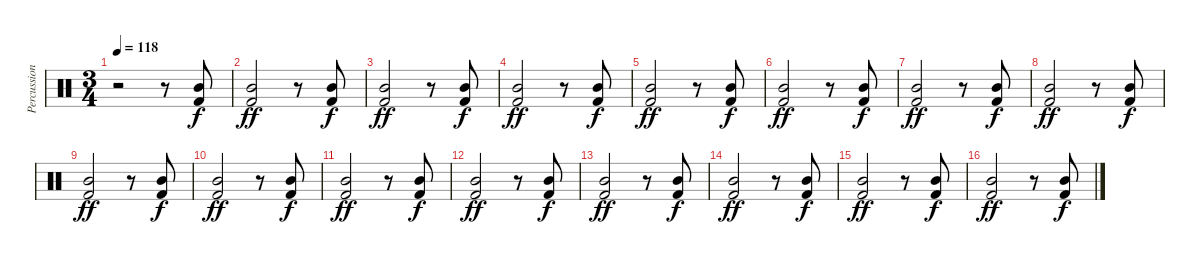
\track ("Percussion" "Percussion") {instrument percussion}
\staff {score}
\articulation defaults
\ts (3 4)
\tempo 118
\clef neutral
\ks c
r.2{dy f volume 4} r.8 ("Mid Tom (hit)" "Kick (hit) 2").8 |
("Mid Tom (hit)" "Kick (hit) 2").2{dy ff} r.8 ("Mid Tom (hit)" "Kick (hit) 2").8{dy f} |
("Mid Tom (hit)" "Kick (hit) 2").2{dy ff} r.8 ("Mid Tom (hit)" "Kick (hit) 2").8{dy f} |
("Mid Tom (hit)" "Kick (hit) 2").2{dy ff} r.8 ("Mid Tom (hit)" "Kick (hit) 2").8{dy f} |
("Mid Tom (hit)" "Kick (hit) 2").2{dy ff} r.8 ("Mid Tom (hit)" "Kick (hit) 2").8{dy f} |
("Mid Tom (hit)" "Kick (hit) 2").2{dy ff} r.8 ("Mid Tom (hit)" "Kick (hit) 2").8{dy f} |
("Mid Tom (hit)" "Kick (hit) 2").2{dy ff} r.8 ("Mid Tom (hit)" "Kick (hit) 2").8{dy f} |
("Mid Tom (hit)" "Kick (hit) 2").2{dy ff} r.8 ("Mid Tom (hit)" "Kick (hit) 2").8{dy f} |
("Mid Tom (hit)" "Kick (hit) 2").2{dy ff} r.8 ("Mid Tom (hit)" "Kick (hit) 2").8{dy f} |
("Mid Tom (hit)" "Kick (hit) 2").2{dy ff} r.8 ("Mid Tom (hit)" "Kick (hit) 2").8{dy f} |
("Mid Tom (hit)" "Kick (hit) 2").2{dy ff} r.8 ("Mid Tom (hit)" "Kick (hit) 2").8{dy f} |
("Mid Tom (hit)" "Kick (hit) 2").2{dy ff} r.8 ("Mid Tom (hit)" "Kick (hit) 2").8{dy f} |
("Mid Tom (hit)" "Kick (hit) 2").2{dy ff} r.8 ("Mid Tom (hit)" "Kick (hit) 2").8{dy f} |
("Mid Tom (hit)" "Kick (hit) 2").2{dy ff} r.8 ("Mid Tom (hit)" "Kick (hit) 2").8{dy f} |
("Mid Tom (hit)" "Kick (hit) 2").2{dy ff} r.8 ("Mid Tom (hit)" "Kick (hit) 2").8{dy f} |
("Mid Tom (hit)" "Kick (hit) 2").2{dy ff} r.8 ("Mid Tom (hit)" "Kick (hit) 2").8{dy f}
